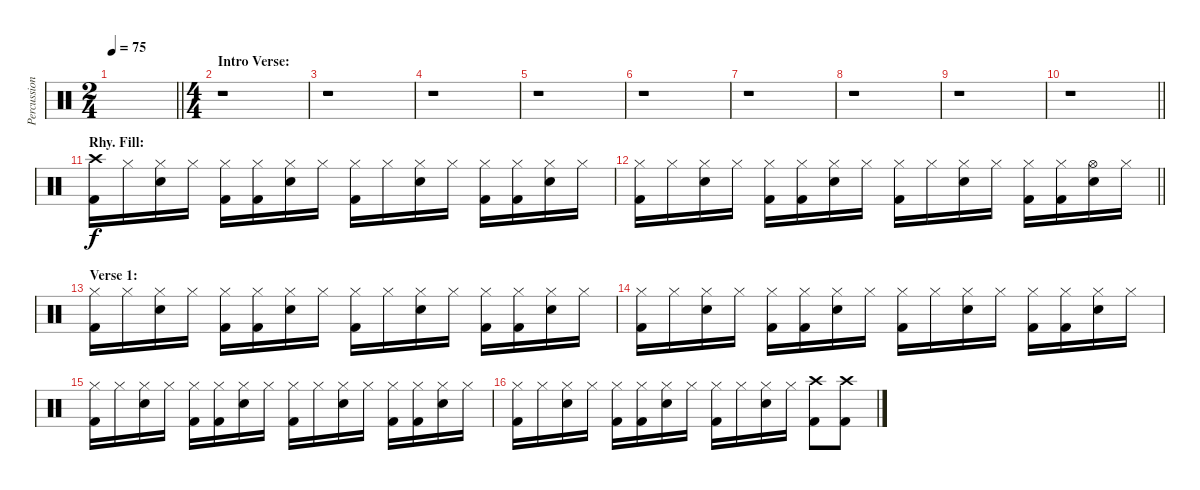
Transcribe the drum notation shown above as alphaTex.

\track ("Percussion" "Percussion") {instrument percussion}
\staff {score}
\articulation defaults
\ts (2 4)
\tempo 75
\clef neutral
\barLineRight lightlight
\ks c
|
\ts (4 4)
\section ("" "Intro Verse:")
r.1 |
r.1 |
r.1 |
r.1 |
r.1 |
r.1 |
r.1 |
r.1 |
\barLineRight lightlight
r.1 |
\section ("" "Rhy. Fill:")
("Crash high (hit)" "Kick (hit) 2").16 "Hi-Hat (closed)".16 ("Hi-Hat (closed)" "Electric Snare (hit)").16 "Hi-Hat (closed)".16 ("Hi-Hat (closed)" "Kick (hit) 2").16 ("Hi-Hat (closed)" "Kick (hit) 2").16 ("Hi-Hat (closed)" "Electric Snare (hit)").16 "Hi-Hat (closed)".16 ("Hi-Hat (closed)" "Kick (hit) 2").16 "Hi-Hat (closed)".16 ("Hi-Hat (closed)" "Electric Snare (hit)").16 "Hi-Hat (closed)".16 ("Hi-Hat (closed)" "Kick (hit) 2").16 ("Hi-Hat (closed)" "Kick (hit) 2").16 ("Hi-Hat (closed)" "Electric Snare (hit)").16 "Hi-Hat (closed)".16 |
\barLineRight lightlight
("Hi-Hat (closed)" "Kick (hit) 2").16 "Hi-Hat (closed)".16 ("Hi-Hat (closed)" "Electric Snare (hit)").16 "Hi-Hat (closed)".16 ("Hi-Hat (closed)" "Kick (hit) 2").16 ("Hi-Hat (closed)" "Kick (hit) 2").16 ("Hi-Hat (closed)" "Electric Snare (hit)").16 "Hi-Hat (closed)".16 ("Hi-Hat (closed)" "Kick (hit) 2").16 "Hi-Hat (closed)".16 ("Hi-Hat (closed)" "Electric Snare (hit)").16 "Hi-Hat (closed)".16 ("Hi-Hat (closed)" "Kick (hit) 2").16 ("Hi-Hat (closed)" "Kick (hit) 2").16 ("Hi-Hat (open)" "Electric Snare (hit)").16 "Hi-Hat (closed)".16 |
\section ("" "Verse 1:")
("Hi-Hat (closed)" "Kick (hit) 2").16 "Hi-Hat (closed)".16 ("Hi-Hat (closed)" "Electric Snare (hit)").16 "Hi-Hat (closed)".16 ("Hi-Hat (closed)" "Kick (hit) 2").16 ("Hi-Hat (closed)" "Kick (hit) 2").16 ("Hi-Hat (closed)" "Electric Snare (hit)").16 "Hi-Hat (closed)".16 ("Hi-Hat (closed)" "Kick (hit) 2").16 "Hi-Hat (closed)".16 ("Hi-Hat (closed)" "Electric Snare (hit)").16 "Hi-Hat (closed)".16 ("Hi-Hat (closed)" "Kick (hit) 2").16 ("Hi-Hat (closed)" "Kick (hit) 2").16 ("Hi-Hat (closed)" "Electric Snare (hit)").16 "Hi-Hat (closed)".16 |
("Hi-Hat (closed)" "Kick (hit) 2").16 "Hi-Hat (closed)".16 ("Hi-Hat (closed)" "Electric Snare (hit)").16 "Hi-Hat (closed)".16 ("Hi-Hat (closed)" "Kick (hit) 2").16 ("Hi-Hat (closed)" "Kick (hit) 2").16 ("Hi-Hat (closed)" "Electric Snare (hit)").16 "Hi-Hat (closed)".16 ("Hi-Hat (closed)" "Kick (hit) 2").16 "Hi-Hat (closed)".16 ("Hi-Hat (closed)" "Electric Snare (hit)").16 "Hi-Hat (closed)".16 ("Hi-Hat (closed)" "Kick (hit) 2").16 ("Hi-Hat (closed)" "Kick (hit) 2").16 ("Hi-Hat (closed)" "Electric Snare (hit)").16 "Hi-Hat (closed)".16 |
("Hi-Hat (closed)" "Kick (hit) 2").16 "Hi-Hat (closed)".16 ("Hi-Hat (closed)" "Electric Snare (hit)").16 "Hi-Hat (closed)".16 ("Hi-Hat (closed)" "Kick (hit) 2").16 ("Hi-Hat (closed)" "Kick (hit) 2").16 ("Hi-Hat (closed)" "Electric Snare (hit)").16 "Hi-Hat (closed)".16 ("Hi-Hat (closed)" "Kick (hit) 2").16 "Hi-Hat (closed)".16 ("Hi-Hat (closed)" "Electric Snare (hit)").16 "Hi-Hat (closed)".16 ("Hi-Hat (closed)" "Kick (hit) 2").16 ("Hi-Hat (closed)" "Kick (hit) 2").16 ("Hi-Hat (closed)" "Electric Snare (hit)").16 "Hi-Hat (closed)".16 |
("Hi-Hat (closed)" "Kick (hit) 2").16 "Hi-Hat (closed)".16 ("Hi-Hat (closed)" "Electric Snare (hit)").16 "Hi-Hat (closed)".16 ("Hi-Hat (closed)" "Kick (hit) 2").16 ("Hi-Hat (closed)" "Kick (hit) 2").16 ("Hi-Hat (closed)" "Electric Snare (hit)").16 "Hi-Hat (closed)".16 ("Hi-Hat (closed)" "Kick (hit) 2").16 "Hi-Hat (closed)".16 ("Hi-Hat (closed)" "Electric Snare (hit)").16 "Hi-Hat (closed)".16 ("Crash high (hit)" "Kick (hit) 2").8 ("Crash high (hit)" "Kick (hit) 2").8
